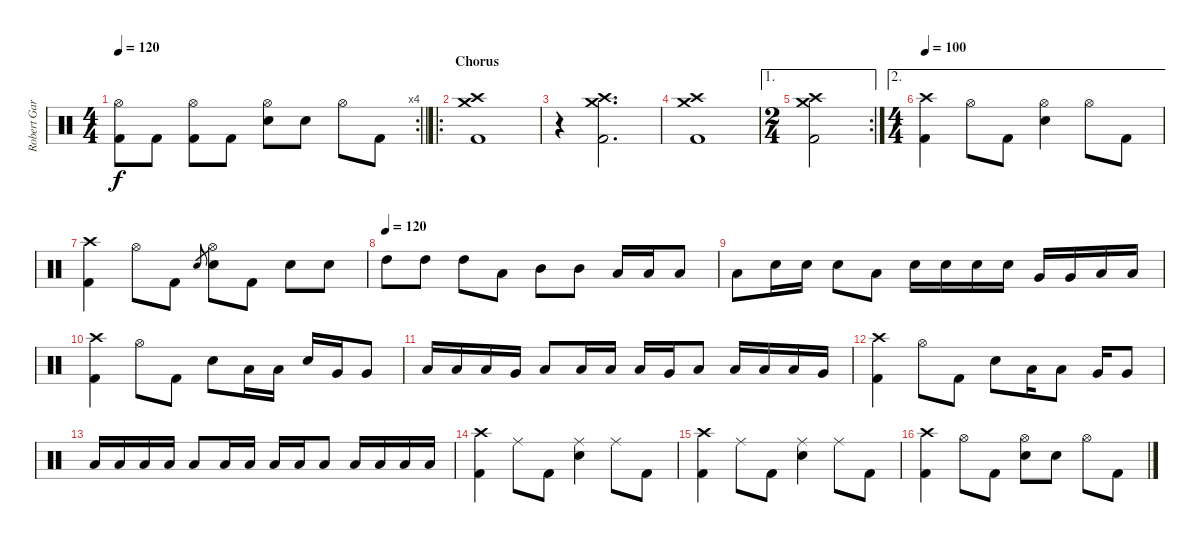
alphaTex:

\track ("Robert Garven" "Robert Gar") {instrument percussion}
\staff {score}
\articulation defaults
\rc 4
\ts (4 4)
\tempo 120
\clef neutral
\barLineRight lightlight
\ks c
("Hi-Hat (open)" "Kick (hit) 2").8{dy f} "Kick (hit) 2".8 ("Hi-Hat (open)" "Kick (hit) 2").8 "Kick (hit) 2".8 ("Hi-Hat (open)" "Electric Snare (hit)").8 "Electric Snare (hit)".8 "Hi-Hat (open)".8 "Kick (hit) 2".8 |
\ro
\section ("" "Chorus")
("Crash high (hit)" "Crash medium (hit)" "Kick (hit) 2").1 |
r.4 ("Crash high (hit)" "Crash medium (hit)" "Kick (hit) 2").2{d} |
("Crash high (hit)" "Crash medium (hit)" "Kick (hit) 2").1 |
\ae 1
\rc 2
\ts (2 4)
("Crash high (hit)" "Crash medium (hit)" "Kick (hit) 2").2 |
\ae 2
\ts (4 4)
\tempo 100
("Crash high (hit)" "Kick (hit) 2").4 "Hi-Hat (open)".8 "Kick (hit) 2".8 ("Hi-Hat (open)" "Electric Snare (hit)").4 "Hi-Hat (open)".8 "Kick (hit) 2".8 |
("Crash high (hit)" "Kick (hit) 2").4 "Hi-Hat (open)".8 "Kick (hit) 2".8 "Electric Snare (hit)".8{gr} ("Hi-Hat (open)" "Electric Snare (hit)").8 "Kick (hit) 2".8 "Electric Snare (hit)".8 "Electric Snare (hit)".8 |
\tempo (120)
"High Tom (hit)".8 "High Tom (hit)".8 "High Tom (hit)".8 "Low Tom (hit)".8 "Mid Tom (hit)".8 "Mid Tom (hit)".8 "Low Tom (hit)".16 "Low Tom (hit)".16 "Low Tom (hit)".8 |
"Low Floor Tom (hit)".8 "Electric Snare (hit)".16 "Electric Snare (hit)".16 "Electric Snare (hit)".8 "Low Floor Tom (hit)".8 "Electric Snare (hit)".16 "Electric Snare (hit)".16 "Electric Snare (hit)".16 "Electric Snare (hit)".16 "Very Low Tom (hit)".16 "Very Low Tom (hit)".16 "Low Floor Tom (hit)".16 "Low Floor Tom (hit)".16 |
("Crash high (hit)" "Kick (hit) 2").4 "Hi-Hat (open)".8 "Kick (hit) 2".8 "Electric Snare (hit)".8 "Low Tom (hit)".16 "Low Tom (hit)".16 "Electric Snare (hit)".16 "Very Low Tom (hit)".16 "Very Low Tom (hit)".8 |
"Low Tom (hit)".16 "Low Floor Tom (hit)".16 "Low Floor Tom (hit)".16 "Very Low Tom (hit)".16 "Low Floor Tom (hit)".8 "Low Tom (hit)".16 "Low Floor Tom (hit)".16 "Low Floor Tom (hit)".16 "Very Low Tom (hit)".16 "Low Floor Tom (hit)".8 "Low Tom (hit)".16 "Low Tom (hit)".16 "Low Tom (hit)".16 "Very Low Tom (hit)".16 |
("Crash high (hit)" "Kick (hit) 2").4 "Hi-Hat (open)".8 "Kick (hit) 2".8 "Electric Snare (hit)".8 "Low Tom (hit)".16 "Low Tom (hit)".8 "Very Low Tom (hit)".16 "Very Low Tom (hit)".8 |
"Low Tom (hit)".16 "Low Tom (hit)".16 "Low Floor Tom (hit)".16 "Low Floor Tom (hit)".16 "Low Floor Tom (hit)".8 "Low Tom (hit)".16 "Low Tom (hit)".16 "Low Tom (hit)".16 "Low Tom (hit)".16 "Low Floor Tom (hit)".8 "Low Tom (hit)".16 "Low Floor Tom (hit)".16 "Low Floor Tom (hit)".16 "Low Floor Tom (hit)".16 |
("Crash high (hit)" "Kick (hit) 2").4 "Ride (middle)".8 "Kick (hit) 2".8 ("Ride (middle)" "Electric Snare (hit)").4 "Ride (middle)".8 "Kick (hit) 2".8 |
("Crash high (hit)" "Kick (hit) 2").4 "Ride (middle)".8 "Kick (hit) 2".8 ("Ride (middle)" "Electric Snare (hit)").4 "Ride (middle)".8 "Kick (hit) 2".8 |
("Crash high (hit)" "Kick (hit) 2").4 "Hi-Hat (open)".8 "Kick (hit) 2".8 ("Hi-Hat (open)" "Electric Snare (hit)").8 "Electric Snare (hit)".8 "Hi-Hat (open)".8 "Kick (hit) 2".8
